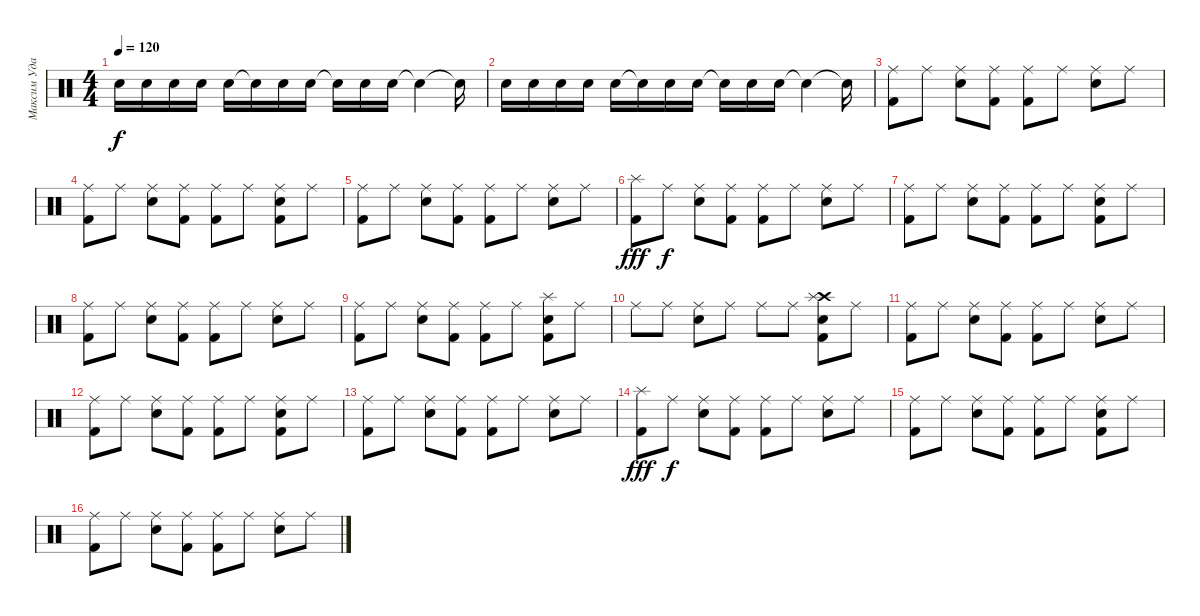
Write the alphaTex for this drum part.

\track ("Максим Удалов" "Максим Уда") {instrument percussion}
\staff {score}
\articulation defaults
\ts (4 4)
\tempo 120
\clef neutral
\ks c "Electric Snare (hit)".16{dy f} "Electric Snare (hit)".16 "Electric Snare (hit)".16 "Electric Snare (hit)".16 "Electric Snare (hit)".16 "Snare (hit)"{t}.16 "Electric Snare (hit)".16 "Electric Snare (hit)".16 "Snare (hit)"{t}.16 "Electric Snare (hit)".16 "Electric Snare (hit)".16 "Snare (hit)"{t}.4 "Snare (hit)"{t}.16
|
"Electric Snare (hit)".16 "Electric Snare (hit)".16 "Electric Snare (hit)".16 "Electric Snare (hit)".16 "Electric Snare (hit)".16 "Snare (hit)"{t}.16 "Electric Snare (hit)".16 "Electric Snare (hit)".16 "Snare (hit)"{t}.16 "Electric Snare (hit)".16 "Electric Snare (hit)".16 "Snare (hit)"{t}.4 "Snare (hit)"{t}.16 |
("Kick (hit) 2" "Ride (middle)").8 "Ride (middle)".8 ("Ride (middle)" "Electric Snare (hit)").8 ("Kick (hit) 2" "Ride (middle)").8 ("Kick (hit) 2" "Ride (middle)").8 "Ride (middle)".8 ("Ride (middle)" "Electric Snare (hit)").8 "Ride (middle)".8 |
("Kick (hit) 2" "Ride (middle)").8 "Ride (middle)".8 ("Ride (middle)" "Electric Snare (hit)").8 ("Kick (hit) 2" "Ride (middle)").8 ("Kick (hit) 2" "Ride (middle)").8 "Ride (middle)".8 ("Kick (hit) 2" "Ride (middle)" "Electric Snare (hit)").8 "Ride (middle)".8 |
("Kick (hit) 2" "Ride (middle)").8 "Ride (middle)".8 ("Ride (middle)" "Electric Snare (hit)").8 ("Kick (hit) 2" "Ride (middle)").8 ("Kick (hit) 2" "Ride (middle)").8 "Ride (middle)".8 ("Ride (middle)" "Electric Snare (hit)").8 "Ride (middle)".8 |
("Kick (hit) 2" "Splash (hit)").8{dy fff} "Ride (middle)".8{dy f} ("Ride (middle)" "Electric Snare (hit)").8 ("Kick (hit) 2" "Ride (middle)").8 ("Kick (hit) 2" "Ride (middle)").8 "Ride (middle)".8 ("Ride (middle)" "Electric Snare (hit)").8 "Ride (middle)".8 |
("Kick (hit) 2" "Ride (middle)").8 "Ride (middle)".8 ("Ride (middle)" "Electric Snare (hit)").8 ("Kick (hit) 2" "Ride (middle)").8 ("Kick (hit) 2" "Ride (middle)").8 "Ride (middle)".8 ("Kick (hit) 2" "Ride (middle)" "Electric Snare (hit)").8 "Ride (middle)".8 |
("Kick (hit) 2" "Ride (middle)").8 "Ride (middle)".8 ("Ride (middle)" "Electric Snare (hit)").8 ("Kick (hit) 2" "Ride (middle)").8 ("Kick (hit) 2" "Ride (middle)").8 "Ride (middle)".8 ("Ride (middle)" "Electric Snare (hit)").8 "Ride (middle)".8 |
("Kick (hit) 2" "Ride (middle)").8 "Ride (middle)".8 ("Ride (middle)" "Electric Snare (hit)").8 ("Kick (hit) 2" "Ride (middle)").8 ("Kick (hit) 2" "Ride (middle)").8 "Ride (middle)".8 ("Kick (hit) 2" "Splash (hit)" "Electric Snare (hit)").8 "Ride (middle)".8 |
"Ride (middle)".8 "Ride (middle)".8 ("Ride (middle)" "Electric Snare (hit)").8 "Ride (middle)".8 "Ride (middle)".8 "Ride (middle)".8 ("Crash high (hit)" "Kick (hit) 2" "Splash (hit)" "Electric Snare (hit)").8 "Ride (middle)".8 |
("Kick (hit) 2" "Ride (middle)").8 "Ride (middle)".8 ("Ride (middle)" "Electric Snare (hit)").8 ("Kick (hit) 2" "Ride (middle)").8 ("Kick (hit) 2" "Ride (middle)").8 "Ride (middle)".8 ("Ride (middle)" "Electric Snare (hit)").8 "Ride (middle)".8 |
("Kick (hit) 2" "Ride (middle)").8 "Ride (middle)".8 ("Ride (middle)" "Electric Snare (hit)").8 ("Kick (hit) 2" "Ride (middle)").8 ("Kick (hit) 2" "Ride (middle)").8 "Ride (middle)".8 ("Kick (hit) 2" "Ride (middle)" "Electric Snare (hit)").8 "Ride (middle)".8 |
("Kick (hit) 2" "Ride (middle)").8 "Ride (middle)".8 ("Ride (middle)" "Electric Snare (hit)").8 ("Kick (hit) 2" "Ride (middle)").8 ("Kick (hit) 2" "Ride (middle)").8 "Ride (middle)".8 ("Ride (middle)" "Electric Snare (hit)").8 "Ride (middle)".8 |
("Kick (hit) 2" "Splash (hit)").8{dy fff} "Ride (middle)".8{dy f} ("Ride (middle)" "Electric Snare (hit)").8 ("Kick (hit) 2" "Ride (middle)").8 ("Kick (hit) 2" "Ride (middle)").8 "Ride (middle)".8 ("Ride (middle)" "Electric Snare (hit)").8 "Ride (middle)".8 |
("Kick (hit) 2" "Ride (middle)").8 "Ride (middle)".8 ("Ride (middle)" "Electric Snare (hit)").8 ("Kick (hit) 2" "Ride (middle)").8 ("Kick (hit) 2" "Ride (middle)").8 "Ride (middle)".8 ("Kick (hit) 2" "Ride (middle)" "Electric Snare (hit)").8 "Ride (middle)".8 |
("Kick (hit) 2" "Ride (middle)").8 "Ride (middle)".8 ("Ride (middle)" "Electric Snare (hit)").8 ("Kick (hit) 2" "Ride (middle)").8 ("Kick (hit) 2" "Ride (middle)").8 "Ride (middle)".8 ("Ride (middle)" "Electric Snare (hit)").8 "Ride (middle)".8
